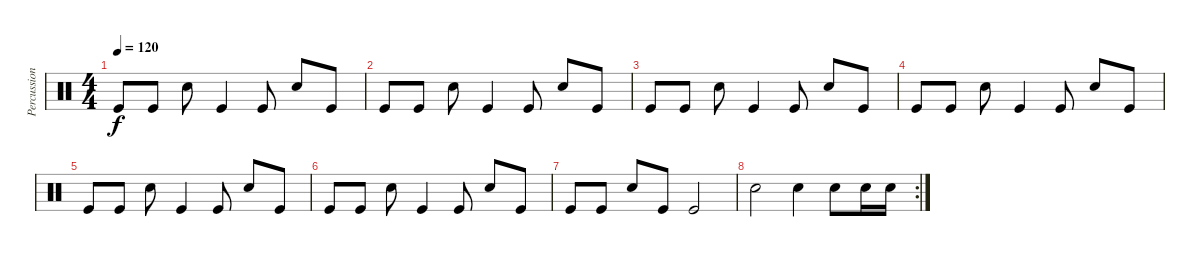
\track ("Percussions" "Percussion") {instrument percussion}
\staff {score}
\articulation defaults
\ts (4 4)
\tempo 120
\clef neutral
\ks c "Kick (hit)".8{dy f} "Kick (hit)".8 "Snare (hit) 2".8 "Kick (hit)".4 "Kick (hit)".8 "Snare (hit) 2".8 "Kick (hit)".8
|
"Kick (hit)".8 "Kick (hit)".8 "Snare (hit) 2".8 "Kick (hit)".4 "Kick (hit)".8 "Snare (hit) 2".8 "Kick (hit)".8 |
"Kick (hit)".8 "Kick (hit)".8 "Snare (hit) 2".8 "Kick (hit)".4 "Kick (hit)".8 "Snare (hit) 2".8 "Kick (hit)".8 |
"Kick (hit)".8 "Kick (hit)".8 "Snare (hit) 2".8 "Kick (hit)".4 "Kick (hit)".8 "Snare (hit) 2".8 "Kick (hit)".8 |
"Kick (hit)".8 "Kick (hit)".8 "Snare (hit) 2".8 "Kick (hit)".4 "Kick (hit)".8 "Snare (hit) 2".8 "Kick (hit)".8 |
"Kick (hit)".8 "Kick (hit)".8 "Snare (hit) 2".8 "Kick (hit)".4 "Kick (hit)".8 "Snare (hit) 2".8 "Kick (hit)".8 |
"Kick (hit)".8 "Kick (hit)".8 "Snare (hit) 2".8 "Kick (hit)".8 "Kick (hit)".2 |
\rc 2 "Snare (hit) 2".2 "Snare (hit) 2".4 "Snare (hit) 2".8 "Snare (hit) 2".16 "Snare (hit) 2".16
